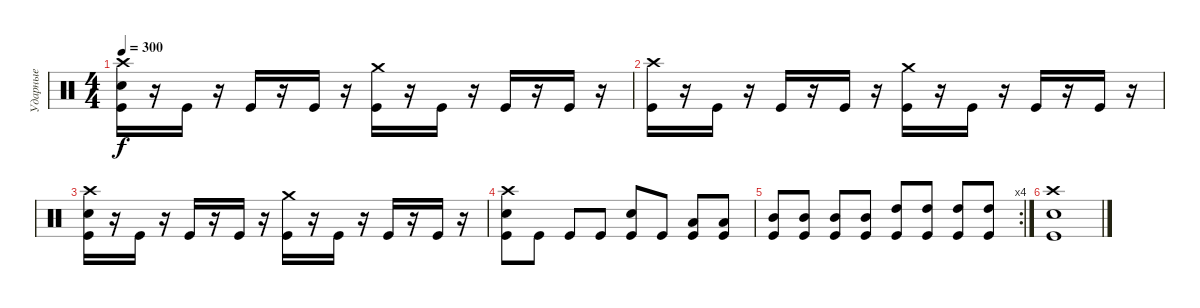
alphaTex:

\track ("Ударные" "Ударные") {instrument percussion}
\staff {score}
\articulation defaults
\ts (4 4)
\tempo 300
\clef neutral
\ks c
("Crash high (hit)" "Electric Snare (hit)" "Kick (hit)").16{dy f} r.16 "Kick (hit)".16 r.16 "Kick (hit)".16 r.16 "Kick (hit)".16 r.16 ("Crash medium (hit)" "Kick (hit)").16 r.16 "Kick (hit)".16 r.16 "Kick (hit)".16 r.16 "Kick (hit)".16 r.16 |
("Crash high (hit)" "Kick (hit)").16 r.16 "Kick (hit)".16 r.16 "Kick (hit)".16 r.16 "Kick (hit)".16 r.16 ("Crash medium (hit)" "Kick (hit)").16 r.16 "Kick (hit)".16 r.16 "Kick (hit)".16 r.16 "Kick (hit)".16 r.16 |
("Crash high (hit)" "Electric Snare (hit)" "Kick (hit)").16 r.16 "Kick (hit)".16 r.16 "Kick (hit)".16 r.16 "Kick (hit)".16 r.16 ("Crash medium (hit)" "Kick (hit)").16 r.16 "Kick (hit)".16 r.16 "Kick (hit)".16 r.16 "Kick (hit)".16 r.16 |
("Crash high (hit)" "Electric Snare (hit)" "Kick (hit)").8 "Kick (hit)".8 "Kick (hit)".8 "Kick (hit)".8 ("Electric Snare (hit)" "Kick (hit)").8 "Kick (hit)".8 ("Low Tom (hit)" "Kick (hit)").8 ("Low Tom (hit)" "Kick (hit)").8 |
\rc 4
("Mid Tom (hit)" "Kick (hit)").8 ("Mid Tom (hit)" "Kick (hit)").8 ("Mid Tom (hit)" "Kick (hit)").8 ("Mid Tom (hit)" "Kick (hit)").8 ("High Tom (hit)" "Kick (hit)").8 ("High Tom (hit)" "Kick (hit)").8 ("High Tom (hit)" "Kick (hit)").8 ("High Tom (hit)" "Kick (hit)").8 |
("Crash high (hit)" "Electric Snare (hit)" "Kick (hit)").1
